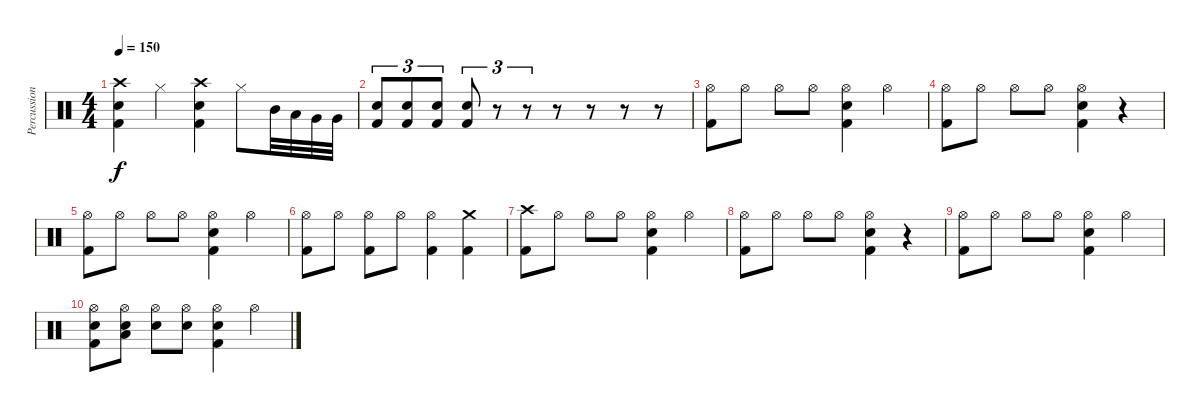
\track ("Percussions" "Percussion") {instrument percussion}
\staff {score}
\articulation defaults
\ts (4 4)
\tempo 150
\clef neutral
\ks c
("Crash high (hit)" "Electric Snare (hit)" "Kick (hit) 2").4{dy f} "Hi-Hat (closed)".4 ("Crash high (hit)" "Electric Snare (hit)" "Kick (hit) 2").4 "Hi-Hat (closed)".8 "Mid Tom (hit)".32 "Low Tom (hit)".32 "Very Low Tom (hit)".32 "Very Low Tom (hit)".32 |
("Electric Snare (hit)" "Kick (hit) 2").8{tu (3 2)} ("Electric Snare (hit)" "Kick (hit) 2").8{tu (3 2)} ("Electric Snare (hit)" "Kick (hit) 2").8{tu (3 2)} ("Electric Snare (hit)" "Kick (hit) 2").8{tu (3 2)} r.8{tu (3 2)} r.8{tu (3 2)} r.8 r.8 r.8 r.8 |
("Hi-Hat (open)" "Kick (hit) 2").8 "Hi-Hat (open)".8 "Hi-Hat (open)".8 "Hi-Hat (open)".8 ("Hi-Hat (open)" "Electric Snare (hit)" "Kick (hit) 2").4 "Hi-Hat (open)".4 |
("Hi-Hat (open)" "Kick (hit) 2").8 "Hi-Hat (open)".8 "Hi-Hat (open)".8 "Hi-Hat (open)".8 ("Hi-Hat (open)" "Electric Snare (hit)" "Kick (hit) 2").4 r.4 |
("Hi-Hat (open)" "Kick (hit) 2").8 "Hi-Hat (open)".8 "Hi-Hat (open)".8 "Hi-Hat (open)".8 ("Hi-Hat (open)" "Electric Snare (hit)" "Kick (hit) 2").4 "Hi-Hat (open)".4 |
("Hi-Hat (open)" "Kick (hit) 2").8 "Hi-Hat (open)".8 ("Hi-Hat (open)" "Kick (hit) 2").8 "Hi-Hat (open)".8 ("Hi-Hat (open)" "Kick (hit) 2").4 ("Crash medium (hit)" "Kick (hit) 2").4 |
("Crash high (hit)" "Kick (hit) 2").8 "Hi-Hat (open)".8 "Hi-Hat (open)".8 "Hi-Hat (open)".8 ("Hi-Hat (open)" "Electric Snare (hit)" "Kick (hit) 2").4 "Hi-Hat (open)".4 |
("Hi-Hat (open)" "Kick (hit) 2").8 "Hi-Hat (open)".8 "Hi-Hat (open)".8 "Hi-Hat (open)".8 ("Hi-Hat (open)" "Electric Snare (hit)" "Kick (hit) 2").4 r.4 |
("Hi-Hat (open)" "Kick (hit) 2").8 "Hi-Hat (open)".8 "Hi-Hat (open)".8 "Hi-Hat (open)".8 ("Hi-Hat (open)" "Electric Snare (hit)" "Kick (hit) 2").4 "Hi-Hat (open)".4 |
("Hi-Hat (open)" "Electric Snare (hit)" "Kick (hit) 2").8 ("Hi-Hat (open)" "Electric Snare (hit)" "Low Tom (hit)").8 ("Hi-Hat (open)" "Electric Snare (hit)").8 ("Hi-Hat (open)" "Electric Snare (hit)").8 ("Hi-Hat (open)" "Electric Snare (hit)" "Kick (hit) 2").4 "Hi-Hat (open)".4
